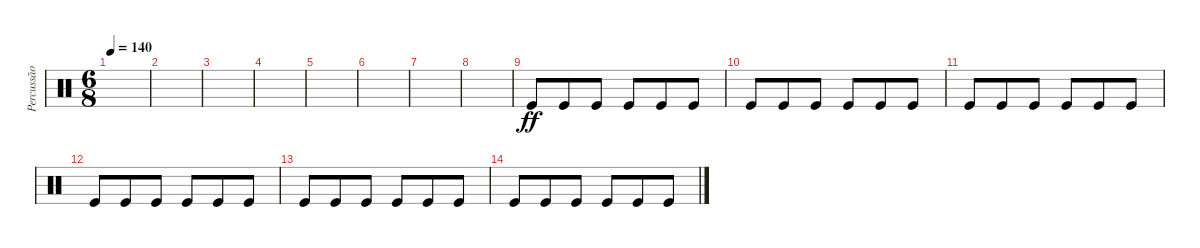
\track ("Percussão" "Percussão") {instrument percussion}
\staff {score}
\articulation defaults
\ts (6 8)
\tempo 140
\clef neutral
\ks c
|
|
|
|
|
|
|
|
"Kick (hit)".8{dy ff} "Kick (hit)".8 "Kick (hit)".8 "Kick (hit)".8 "Kick (hit)".8 "Kick (hit)".8 |
"Kick (hit)".8 "Kick (hit)".8 "Kick (hit)".8 "Kick (hit)".8 "Kick (hit)".8 "Kick (hit)".8 |
"Kick (hit)".8 "Kick (hit)".8 "Kick (hit)".8 "Kick (hit)".8 "Kick (hit)".8 "Kick (hit)".8 |
"Kick (hit)".8 "Kick (hit)".8 "Kick (hit)".8 "Kick (hit)".8 "Kick (hit)".8 "Kick (hit)".8 |
"Kick (hit)".8 "Kick (hit)".8 "Kick (hit)".8 "Kick (hit)".8 "Kick (hit)".8 "Kick (hit)".8 |
"Kick (hit)".8 "Kick (hit)".8 "Kick (hit)".8 "Kick (hit)".8 "Kick (hit)".8 "Kick (hit)".8
